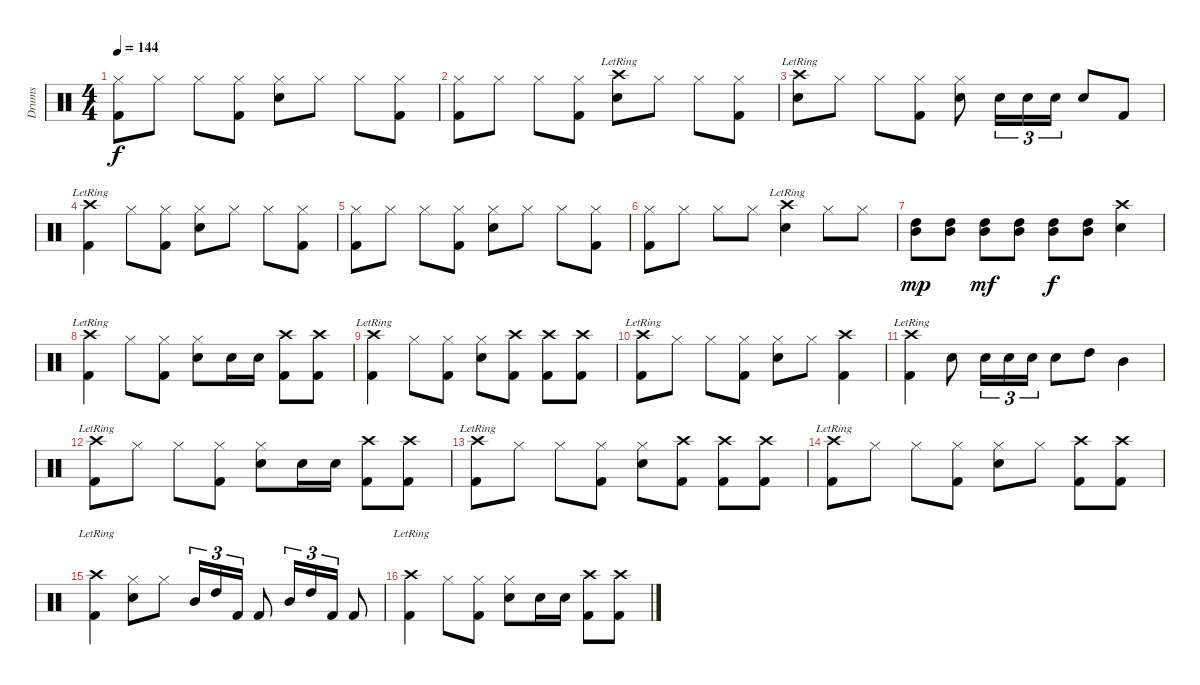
\track ("Drums" "Drums") {instrument percussion}
\staff {score}
\articulation defaults
\ts (4 4)
\tempo 144
\clef neutral
\ks c
("Hi-Hat (closed)" "Kick (hit) 2").8{dy f} "Hi-Hat (closed)".8 "Hi-Hat (closed)".8 ("Hi-Hat (closed)" "Kick (hit) 2").8 ("Hi-Hat (closed)" "Snare (hit) 2").8 "Hi-Hat (closed)".8 "Hi-Hat (closed)".8 ("Hi-Hat (closed)" "Kick (hit) 2").8 |
("Hi-Hat (closed)" "Kick (hit) 2").8 "Hi-Hat (closed)".8 "Hi-Hat (closed)".8 ("Hi-Hat (closed)" "Kick (hit) 2").8 ("Crash high (hit)"{lr} "Snare (hit) 2").8 "Hi-Hat (closed)".8 "Hi-Hat (closed)".8 ("Hi-Hat (closed)" "Kick (hit) 2").8 |
("Crash high (hit)"{lr} "Snare (hit) 2").8 "Hi-Hat (closed)".8 "Hi-Hat (closed)".8 ("Hi-Hat (closed)" "Kick (hit) 2").8 ("Hi-Hat (closed)" "Snare (hit) 2").8 "Snare (hit) 2".16{tu (3 2)} "Snare (hit) 2".16{tu (3 2)} "Snare (hit) 2".16{tu (3 2)} "Snare (hit) 2".8 "Kick (hit) 2".8 |
("Crash high (hit)"{lr} "Kick (hit) 2").4 "Hi-Hat (closed)".8 ("Hi-Hat (closed)" "Kick (hit) 2").8 ("Hi-Hat (closed)" "Snare (hit) 2").8 "Hi-Hat (closed)".8 "Hi-Hat (closed)".8 ("Hi-Hat (closed)" "Kick (hit) 2").8 |
("Hi-Hat (closed)" "Kick (hit) 2").8 "Hi-Hat (closed)".8 "Hi-Hat (closed)".8 ("Hi-Hat (closed)" "Kick (hit) 2").8 ("Hi-Hat (closed)" "Snare (hit) 2").8 "Hi-Hat (closed)".8 "Hi-Hat (closed)".8 ("Hi-Hat (closed)" "Kick (hit) 2").8 |
("Hi-Hat (closed)" "Kick (hit) 2").8 "Hi-Hat (closed)".8 "Hi-Hat (closed)".8 "Hi-Hat (closed)".8 ("Crash high (hit)"{lr} "Snare (hit) 2").4 "Hi-Hat (closed)".8 "Hi-Hat (closed)".8 |
("High Tom (hit)" "Mid Tom (hit)").8{dy mp} ("High Tom (hit)" "Mid Tom (hit)").8 ("High Tom (hit)" "Mid Tom (hit)").8{dy mf} ("High Tom (hit)" "Mid Tom (hit)").8 ("High Tom (hit)" "Mid Tom (hit)").8{dy f} ("High Tom (hit)" "Mid Tom (hit)").8 ("Crash high (hit)" "Snare (hit) 2").4 |
("Crash high (hit)"{lr} "Kick (hit) 2").4 "Hi-Hat (closed)".8 ("Hi-Hat (closed)" "Kick (hit) 2").8 ("Hi-Hat (closed)" "Snare (hit) 2").8 "Snare (hit) 2".16 "Snare (hit) 2".16 ("Crash high (hit)" "Kick (hit) 2").8 ("Crash high (hit)" "Kick (hit) 2").8 |
("Crash high (hit)"{lr} "Kick (hit) 2").4 "Hi-Hat (closed)".8 ("Hi-Hat (closed)" "Kick (hit) 2").8 ("Hi-Hat (closed)" "Snare (hit) 2").8 ("Crash high (hit)" "Kick (hit) 2").8 ("Crash high (hit)" "Kick (hit) 2").8 ("Crash high (hit)" "Kick (hit) 2").8 |
("Crash high (hit)"{lr} "Kick (hit) 2").8 "Hi-Hat (closed)".8 "Hi-Hat (closed)".8 ("Hi-Hat (closed)" "Kick (hit) 2").8 ("Hi-Hat (closed)" "Snare (hit) 2").8 "Hi-Hat (closed)".8 ("Crash high (hit)" "Kick (hit) 2").4 |
("Crash high (hit)"{lr} "Kick (hit) 2").4 "Snare (hit) 2".8 "Snare (hit) 2".16{tu (3 2)} "Snare (hit) 2".16{tu (3 2)} "Snare (hit) 2".16{tu (3 2)} "Snare (hit) 2".8 "High Tom (hit)".8 "Mid Tom (hit)".4 |
("Crash high (hit)"{lr} "Kick (hit) 2").8 "Hi-Hat (closed)".8 "Hi-Hat (closed)".8 ("Hi-Hat (closed)" "Kick (hit) 2").8 ("Hi-Hat (closed)" "Snare (hit) 2").8 "Snare (hit) 2".16 "Snare (hit) 2".16 ("Crash high (hit)" "Kick (hit) 2").8 ("Crash high (hit)" "Kick (hit) 2").8 |
("Crash high (hit)"{lr} "Kick (hit) 2").8 "Hi-Hat (closed)".8 "Hi-Hat (closed)".8 ("Hi-Hat (closed)" "Kick (hit) 2").8 ("Hi-Hat (closed)" "Snare (hit) 2").8 ("Crash high (hit)" "Kick (hit) 2").8 ("Crash high (hit)" "Kick (hit) 2").8 ("Crash high (hit)" "Kick (hit) 2").8 |
("Crash high (hit)"{lr} "Kick (hit) 2").8 "Hi-Hat (closed)".8 "Hi-Hat (closed)".8 ("Hi-Hat (closed)" "Kick (hit) 2").8 ("Hi-Hat (closed)" "Snare (hit) 2").8 "Hi-Hat (closed)".8 ("Crash high (hit)" "Kick (hit) 2").8 ("Crash high (hit)" "Kick (hit) 2").8 |
("Crash high (hit)"{lr} "Kick (hit) 2").4 ("Hi-Hat (closed)" "Snare (hit) 2").8 "Hi-Hat (closed)".8 "Mid Tom (hit)".16{tu (3 2)} "High Tom (hit)".16{tu (3 2)} "Kick (hit) 2".16{tu (3 2)} "Kick (hit) 2".8 "Mid Tom (hit)".16{tu (3 2)} "High Tom (hit)".16{tu (3 2)} "Kick (hit) 2".16{tu (3 2)} "Kick (hit) 2".8 |
("Crash high (hit)"{lr} "Kick (hit) 2").4 "Hi-Hat (closed)".8 ("Hi-Hat (closed)" "Kick (hit) 2").8 ("Hi-Hat (closed)" "Snare (hit) 2").8 "Snare (hit) 2".16 "Snare (hit) 2".16 ("Crash high (hit)" "Kick (hit) 2").8 ("Crash high (hit)" "Kick (hit) 2").8
